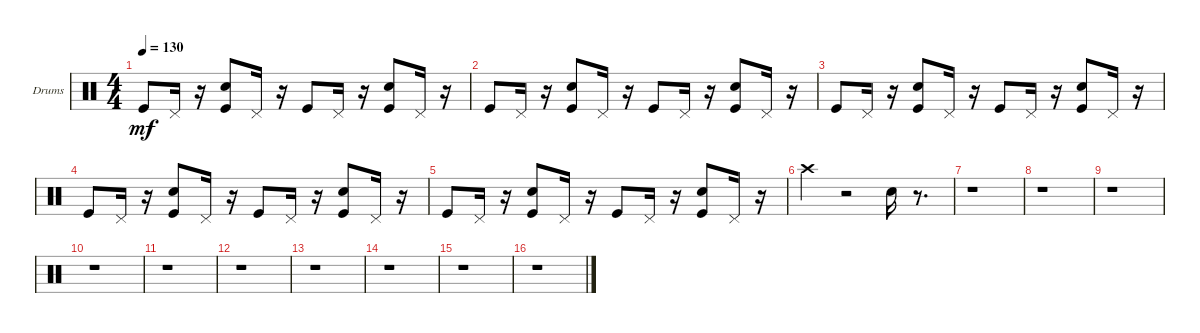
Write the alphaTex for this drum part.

\bracketExtendMode groupsimilarinstruments
\firstSystemTrackNameOrientation horizontal
\otherSystemsTrackNameOrientation horizontal
\track ("MIDI Drums" "Drums") {instrument percussion}
\staff {score}
\articulation defaults
\ts (4 4)
\tempo 130
\clef neutral
\ks c "Kick (hit)".8{dy mf} "Pedal Hi-Hat (hit)".16
r.16 ("Snare (hit) 2" "Kick (hit)").8 "Pedal Hi-Hat (hit)".16 r.16 "Kick (hit)".8 "Pedal Hi-Hat (hit)".16 r.16 ("Kick (hit)" "Snare (hit) 2").8 "Pedal Hi-Hat (hit)".16 r.16 |
"Kick (hit)".8 "Pedal Hi-Hat (hit)".16 r.16 ("Snare (hit) 2" "Kick (hit)").8 "Pedal Hi-Hat (hit)".16 r.16 "Kick (hit)".8 "Pedal Hi-Hat (hit)".16 r.16 ("Snare (hit) 2" "Kick (hit)").8 "Pedal Hi-Hat (hit)".16 r.16 |
"Kick (hit)".8 "Pedal Hi-Hat (hit)".16 r.16 ("Snare (hit) 2" "Kick (hit)").8 "Pedal Hi-Hat (hit)".16 r.16 "Kick (hit)".8 "Pedal Hi-Hat (hit)".16 r.16 ("Kick (hit)" "Snare (hit) 2").8 "Pedal Hi-Hat (hit)".16 r.16 |
"Kick (hit)".8 "Pedal Hi-Hat (hit)".16 r.16 ("Snare (hit) 2" "Kick (hit)").8 "Pedal Hi-Hat (hit)".16 r.16 "Kick (hit)".8 "Pedal Hi-Hat (hit)".16 r.16 ("Snare (hit) 2" "Kick (hit)").8 "Pedal Hi-Hat (hit)".16 r.16 |
"Kick (hit)".8 "Pedal Hi-Hat (hit)".16 r.16 ("Snare (hit) 2" "Kick (hit)").8 "Pedal Hi-Hat (hit)".16 r.16 "Kick (hit)".8 "Pedal Hi-Hat (hit)".16 r.16 ("Kick (hit)" "Snare (hit) 2").8 "Pedal Hi-Hat (hit)".16 r.16 |
"Crash high (hit)".4 r.2 "Snare (hit) 2".16 r.8{d} |
r.1 |
r.1 |
r.1 |
r.1 |
r.1 |
r.1 |
r.1 |
r.1 |
r.1 |
r.1
